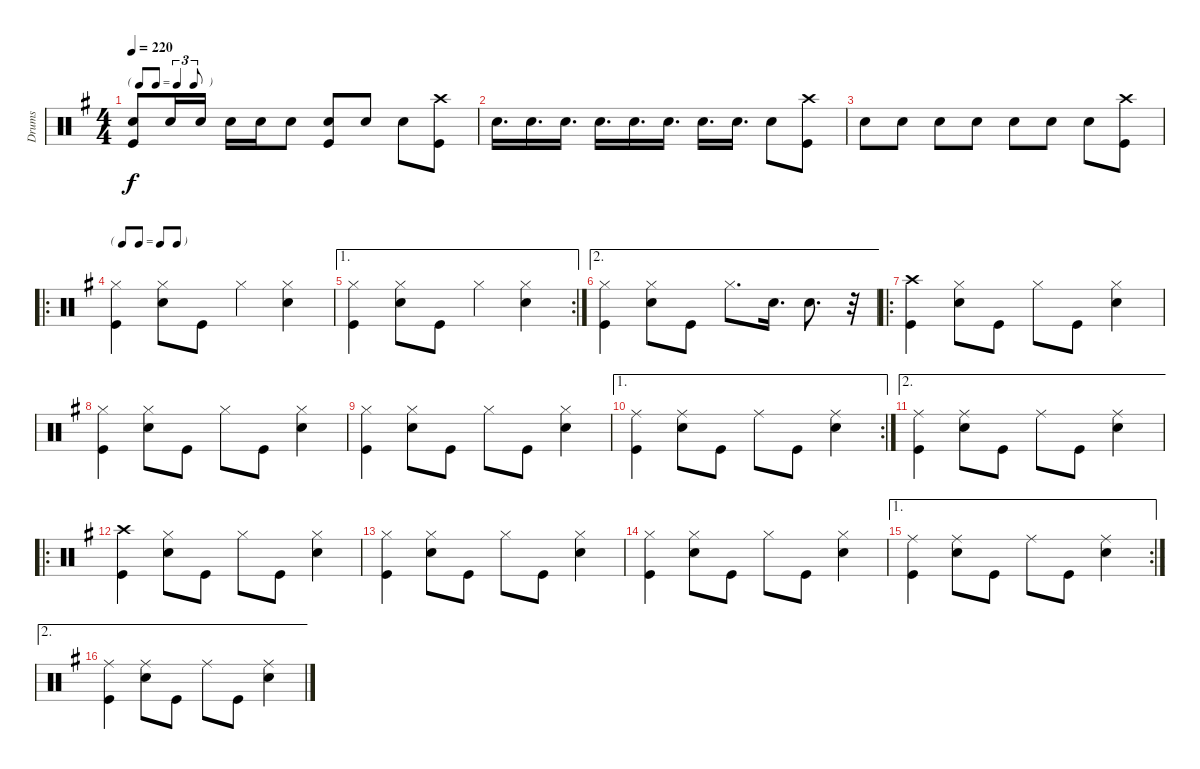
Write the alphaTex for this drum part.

\track ("Drums" "Drums") {instrument percussion}
\staff {score}
\articulation defaults
\ts (4 4)
\tf triplet8th
\tempo 220
\clef neutral
\ks g
("Snare (hit) 2" "Kick (hit)").8{dy f} "Snare (hit) 2".16 "Snare (hit) 2".16 "Snare (hit) 2".16 "Snare (hit) 2".16 "Snare (hit) 2".8 ("Snare (hit) 2" "Kick (hit)").8 "Snare (hit) 2".8 "Snare (hit) 2".8 ("Crash high (hit)" "Kick (hit)").8 |
"Snare (hit) 2".16{d} "Snare (hit) 2".16{d} "Snare (hit) 2".16{d} "Snare (hit) 2".16{d} "Snare (hit) 2".16{d} "Snare (hit) 2".16{d} "Snare (hit) 2".16{d} "Snare (hit) 2".16{d} "Snare (hit) 2".8 ("Crash high (hit)" "Kick (hit)").8 |
"Snare (hit) 2".8 "Snare (hit) 2".8 "Snare (hit) 2".8 "Snare (hit) 2".8 "Snare (hit) 2".8 "Snare (hit) 2".8 "Snare (hit) 2".8 ("Crash high (hit)" "Kick (hit)").8 |
\ro
\tf none
("Hi-Hat (closed)" "Kick (hit)").4 ("Hi-Hat (closed)" "Snare (hit) 2").8 "Kick (hit)".8 "Hi-Hat (closed)".4 ("Hi-Hat (closed)" "Snare (hit) 2").4 |
\ae 1
\rc 2
("Hi-Hat (closed)" "Kick (hit)").4 ("Hi-Hat (closed)" "Snare (hit) 2").8 "Kick (hit)".8 "Hi-Hat (closed)".4 ("Hi-Hat (closed)" "Snare (hit) 2").4 |
\ae 2
("Hi-Hat (closed)" "Kick (hit)").4 ("Hi-Hat (closed)" "Snare (hit) 2").8 "Kick (hit)".8 "Hi-Hat (closed)".8{d} "Snare (hit) 2".16{d} "Snare (hit) 2".8{d} r.32 |
\ro
("Crash high (hit)" "Kick (hit)").4 ("Hi-Hat (closed)" "Snare (hit) 2").8 "Kick (hit)".8 "Hi-Hat (closed)".8 "Kick (hit)".8 ("Hi-Hat (closed)" "Snare (hit) 2").4 |
("Hi-Hat (closed)" "Kick (hit)").4 ("Hi-Hat (closed)" "Snare (hit) 2").8 "Kick (hit)".8 "Hi-Hat (closed)".8 "Kick (hit)".8 ("Hi-Hat (closed)" "Snare (hit) 2").4 |
("Hi-Hat (closed)" "Kick (hit)").4 ("Hi-Hat (closed)" "Snare (hit) 2").8 "Kick (hit)".8 "Hi-Hat (closed)".8 "Kick (hit)".8 ("Hi-Hat (closed)" "Snare (hit) 2").4 |
\ae 1
\rc 2
("Ride (middle)" "Kick (hit)").4 ("Ride (middle)" "Snare (hit) 2").8 "Kick (hit)".8 "Ride (middle)".8 "Kick (hit)".8 ("Ride (middle)" "Snare (hit) 2").4 |
\ae 2
("Ride (middle)" "Kick (hit)").4 ("Ride (middle)" "Snare (hit) 2").8 "Kick (hit)".8 "Ride (middle)".8 "Kick (hit)".8 ("Ride (middle)" "Snare (hit) 2").4 |
\ro
("Crash high (hit)" "Kick (hit)").4 ("Hi-Hat (closed)" "Snare (hit) 2").8 "Kick (hit)".8 "Hi-Hat (closed)".8 "Kick (hit)".8 ("Hi-Hat (closed)" "Snare (hit) 2").4 |
("Hi-Hat (closed)" "Kick (hit)").4 ("Hi-Hat (closed)" "Snare (hit) 2").8 "Kick (hit)".8 "Hi-Hat (closed)".8 "Kick (hit)".8 ("Hi-Hat (closed)" "Snare (hit) 2").4 |
("Hi-Hat (closed)" "Kick (hit)").4 ("Hi-Hat (closed)" "Snare (hit) 2").8 "Kick (hit)".8 "Hi-Hat (closed)".8 "Kick (hit)".8 ("Hi-Hat (closed)" "Snare (hit) 2").4 |
\ae 1
\rc 2
("Ride (middle)" "Kick (hit)").4 ("Ride (middle)" "Snare (hit) 2").8 "Kick (hit)".8 "Ride (middle)".8 "Kick (hit)".8 ("Ride (middle)" "Snare (hit) 2").4 |
\ae 2
("Ride (middle)" "Kick (hit)").4 ("Ride (middle)" "Snare (hit) 2").8 "Kick (hit)".8 "Ride (middle)".8 "Kick (hit)".8 ("Ride (middle)" "Snare (hit) 2").4
